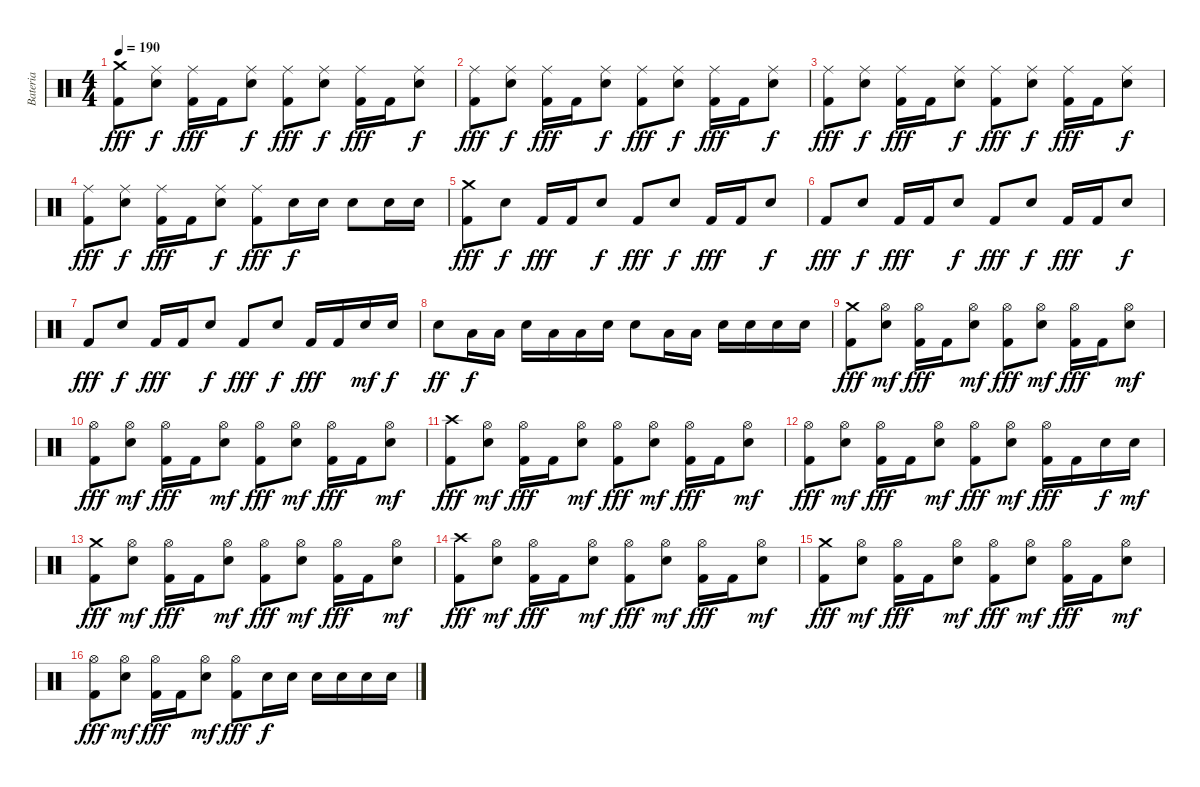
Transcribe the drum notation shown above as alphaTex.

\track ("Bateria" "Bateria") {instrument percussion}
\staff {score}
\articulation defaults
\ts (4 4)
\tempo 190
\clef neutral
\ks c
("Crash medium (hit)" "Kick (hit) 2").8{dy fff} ("Ride (middle)" "Electric Snare (hit)").8{dy f} ("Ride (middle)" "Kick (hit) 2").16{dy fff} "Kick (hit) 2".16 ("Ride (middle)" "Electric Snare (hit)").8{dy f} ("Ride (middle)" "Kick (hit) 2").8{dy fff} ("Ride (middle)" "Electric Snare (hit)").8{dy f} ("Ride (middle)" "Kick (hit) 2").16{dy fff} "Kick (hit) 2".16 ("Ride (middle)" "Electric Snare (hit)").8{dy f} |
("Ride (middle)" "Kick (hit) 2").8{dy fff} ("Ride (middle)" "Electric Snare (hit)").8{dy f} ("Ride (middle)" "Kick (hit) 2").16{dy fff} "Kick (hit) 2".16 ("Ride (middle)" "Electric Snare (hit)").8{dy f} ("Ride (middle)" "Kick (hit) 2").8{dy fff} ("Ride (middle)" "Electric Snare (hit)").8{dy f} ("Ride (middle)" "Kick (hit) 2").16{dy fff} "Kick (hit) 2".16 ("Ride (middle)" "Electric Snare (hit)").8{dy f} |
("Ride (middle)" "Kick (hit) 2").8{dy fff} ("Ride (middle)" "Electric Snare (hit)").8{dy f} ("Ride (middle)" "Kick (hit) 2").16{dy fff} "Kick (hit) 2".16 ("Ride (middle)" "Electric Snare (hit)").8{dy f} ("Ride (middle)" "Kick (hit) 2").8{dy fff} ("Ride (middle)" "Electric Snare (hit)").8{dy f} ("Ride (middle)" "Kick (hit) 2").16{dy fff} "Kick (hit) 2".16 ("Ride (middle)" "Electric Snare (hit)").8{dy f} |
("Ride (middle)" "Kick (hit) 2").8{dy fff} ("Ride (middle)" "Electric Snare (hit)").8{dy f} ("Ride (middle)" "Kick (hit) 2").16{dy fff} "Kick (hit) 2".16 ("Ride (middle)" "Electric Snare (hit)").8{dy f} ("Ride (middle)" "Kick (hit) 2").8{dy fff} "Electric Snare (hit)".16{dy f} "Electric Snare (hit)".16 "Electric Snare (hit)".8 "Electric Snare (hit)".16 "Electric Snare (hit)".16 |
("Crash medium (hit)" "Kick (hit) 2").8{dy fff} "Electric Snare (hit)".8{dy f} "Kick (hit) 2".16{dy fff} "Kick (hit) 2".16 "Electric Snare (hit)".8{dy f} "Kick (hit) 2".8{dy fff} "Electric Snare (hit)".8{dy f} "Kick (hit) 2".16{dy fff} "Kick (hit) 2".16 "Electric Snare (hit)".8{dy f} |
"Kick (hit) 2".8{dy fff} "Electric Snare (hit)".8{dy f} "Kick (hit) 2".16{dy fff} "Kick (hit) 2".16 "Electric Snare (hit)".8{dy f} "Kick (hit) 2".8{dy fff} "Electric Snare (hit)".8{dy f} "Kick (hit) 2".16{dy fff} "Kick (hit) 2".16 "Electric Snare (hit)".8{dy f} |
"Kick (hit) 2".8{dy fff} "Electric Snare (hit)".8{dy f} "Kick (hit) 2".16{dy fff} "Kick (hit) 2".16 "Electric Snare (hit)".8{dy f} "Kick (hit) 2".8{dy fff} "Electric Snare (hit)".8{dy f} "Kick (hit) 2".16{dy fff} "Kick (hit) 2".16 "Electric Snare (hit)".16{dy mf} "Electric Snare (hit)".16{dy f} |
"Electric Snare (hit)".8{dy ff} "Low Tom (hit)".16{dy f} "Low Tom (hit)".16 "Electric Snare (hit)".16 "Low Tom (hit)".16 "Low Tom (hit)".16 "Electric Snare (hit)".16 "Electric Snare (hit)".8 "Low Tom (hit)".16 "Low Tom (hit)".16 "Electric Snare (hit)".16 "Electric Snare (hit)".16 "Electric Snare (hit)".16 "Electric Snare (hit)".16 |
("Crash medium (hit)" "Kick (hit) 2").8{dy fff} ("Hi-Hat (open)" "Electric Snare (hit)").8{dy mf} ("Hi-Hat (open)" "Kick (hit) 2").16{dy fff} "Kick (hit) 2".16 ("Hi-Hat (open)" "Electric Snare (hit)").8{dy mf} ("Hi-Hat (open)" "Kick (hit) 2").8{dy fff} ("Hi-Hat (open)" "Electric Snare (hit)").8{dy mf} ("Hi-Hat (open)" "Kick (hit) 2").16{dy fff} "Kick (hit) 2".16 ("Hi-Hat (open)" "Electric Snare (hit)").8{dy mf} |
("Hi-Hat (open)" "Kick (hit) 2").8{dy fff} ("Hi-Hat (open)" "Electric Snare (hit)").8{dy mf} ("Hi-Hat (open)" "Kick (hit) 2").16{dy fff} "Kick (hit) 2".16 ("Hi-Hat (open)" "Electric Snare (hit)").8{dy mf} ("Hi-Hat (open)" "Kick (hit) 2").8{dy fff} ("Hi-Hat (open)" "Electric Snare (hit)").8{dy mf} ("Hi-Hat (open)" "Kick (hit) 2").16{dy fff} "Kick (hit) 2".16 ("Hi-Hat (open)" "Electric Snare (hit)").8{dy mf} |
("Crash high (hit)" "Kick (hit) 2").8{dy fff} ("Hi-Hat (open)" "Electric Snare (hit)").8{dy mf} ("Hi-Hat (open)" "Kick (hit) 2").16{dy fff} "Kick (hit) 2".16 ("Hi-Hat (open)" "Electric Snare (hit)").8{dy mf} ("Hi-Hat (open)" "Kick (hit) 2").8{dy fff} ("Hi-Hat (open)" "Electric Snare (hit)").8{dy mf} ("Hi-Hat (open)" "Kick (hit) 2").16{dy fff} "Kick (hit) 2".16 ("Hi-Hat (open)" "Electric Snare (hit)").8{dy mf} |
("Hi-Hat (open)" "Kick (hit) 2").8{dy fff} ("Hi-Hat (open)" "Electric Snare (hit)").8{dy mf} ("Hi-Hat (open)" "Kick (hit) 2").16{dy fff} "Kick (hit) 2".16 ("Hi-Hat (open)" "Electric Snare (hit)").8{dy mf} ("Hi-Hat (open)" "Kick (hit) 2").8{dy fff} ("Hi-Hat (open)" "Electric Snare (hit)").8{dy mf} ("Hi-Hat (open)" "Kick (hit) 2").16{dy fff} "Kick (hit) 2".16 "Electric Snare (hit)".16{dy f} "Electric Snare (hit)".16{dy mf} |
("Crash medium (hit)" "Kick (hit) 2").8{dy fff} ("Hi-Hat (open)" "Electric Snare (hit)").8{dy mf} ("Hi-Hat (open)" "Kick (hit) 2").16{dy fff} "Kick (hit) 2".16 ("Hi-Hat (open)" "Electric Snare (hit)").8{dy mf} ("Hi-Hat (open)" "Kick (hit) 2").8{dy fff} ("Hi-Hat (open)" "Electric Snare (hit)").8{dy mf} ("Hi-Hat (open)" "Kick (hit) 2").16{dy fff} "Kick (hit) 2".16 ("Hi-Hat (open)" "Electric Snare (hit)").8{dy mf} |
("Crash high (hit)" "Kick (hit) 2").8{dy fff} ("Hi-Hat (open)" "Electric Snare (hit)").8{dy mf} ("Hi-Hat (open)" "Kick (hit) 2").16{dy fff} "Kick (hit) 2".16 ("Hi-Hat (open)" "Electric Snare (hit)").8{dy mf} ("Hi-Hat (open)" "Kick (hit) 2").8{dy fff} ("Hi-Hat (open)" "Electric Snare (hit)").8{dy mf} ("Hi-Hat (open)" "Kick (hit) 2").16{dy fff} "Kick (hit) 2".16 ("Hi-Hat (open)" "Electric Snare (hit)").8{dy mf} |
("Crash medium (hit)" "Kick (hit) 2").8{dy fff} ("Hi-Hat (open)" "Electric Snare (hit)").8{dy mf} ("Hi-Hat (open)" "Kick (hit) 2").16{dy fff} "Kick (hit) 2".16 ("Hi-Hat (open)" "Electric Snare (hit)").8{dy mf} ("Hi-Hat (open)" "Kick (hit) 2").8{dy fff} ("Hi-Hat (open)" "Electric Snare (hit)").8{dy mf} ("Hi-Hat (open)" "Kick (hit) 2").16{dy fff} "Kick (hit) 2".16 ("Hi-Hat (open)" "Electric Snare (hit)").8{dy mf} |
("Hi-Hat (open)" "Kick (hit) 2").8{dy fff} ("Hi-Hat (open)" "Electric Snare (hit)").8{dy mf} ("Hi-Hat (open)" "Kick (hit) 2").16{dy fff} "Kick (hit) 2".16 ("Hi-Hat (open)" "Electric Snare (hit)").8{dy mf} ("Hi-Hat (open)" "Kick (hit) 2").8{dy fff} "Electric Snare (hit)".16{dy f} "Electric Snare (hit)".16 "Electric Snare (hit)".16 "Electric Snare (hit)".16 "Electric Snare (hit)".16 "Electric Snare (hit)".16
